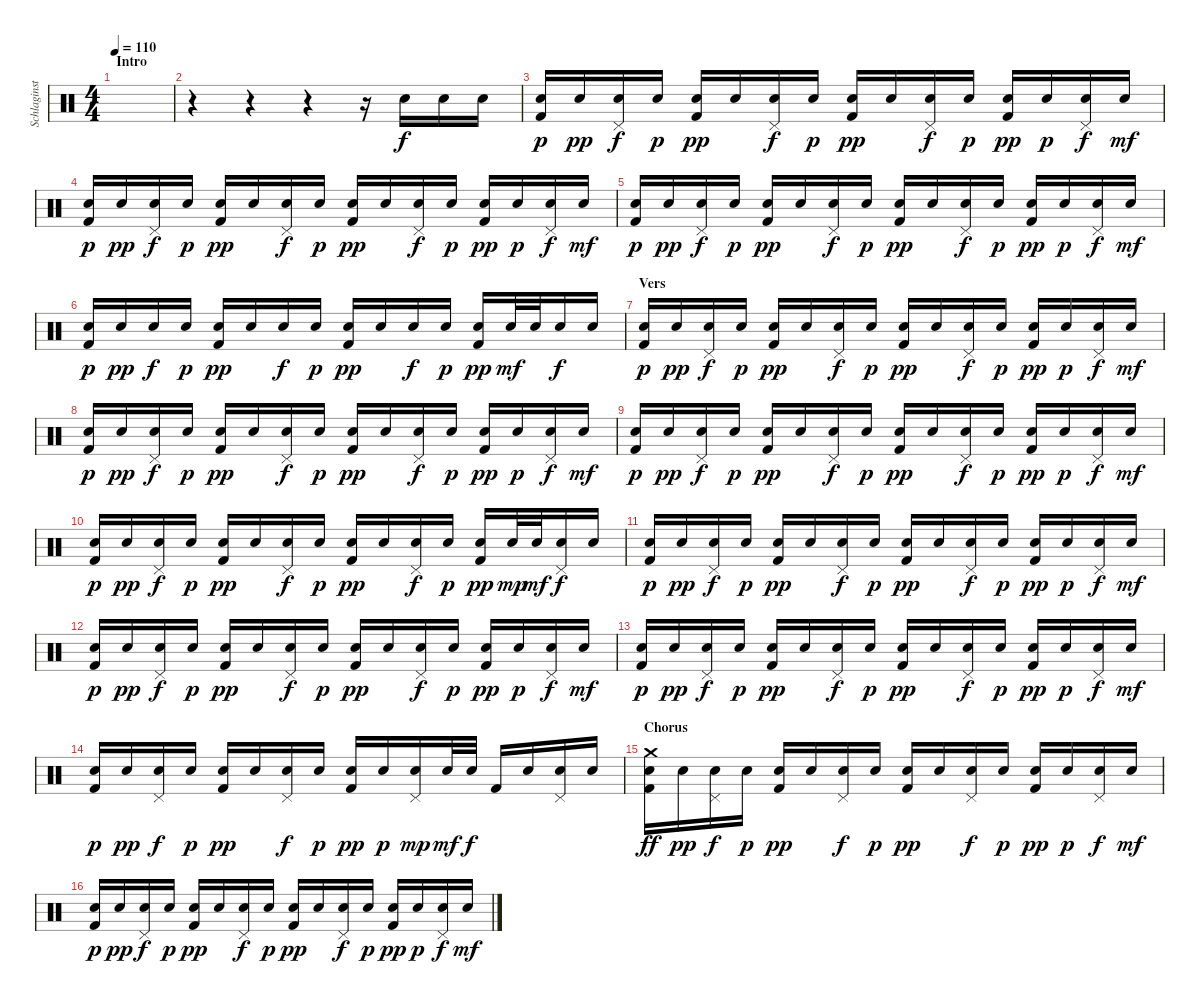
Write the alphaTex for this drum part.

\track ("Schlaginstrumente - Auswahl" "Schlaginst") {instrument percussion}
\staff {score}
\articulation defaults
\ts (4 4)
\section ("" "Intro")
\tempo 110
\clef neutral
\ks c
|
r.4 r.4 r.4 r.16 "Snare (hit) 2".16 "Snare (hit) 2".16 "Snare (hit) 2".16 |
("Snare (hit) 2" "Kick (hit) 2").16{dy p} "Snare (hit) 2".16{dy pp} ("Pedal Hi-Hat (hit)" "Snare (hit) 2").16{dy f} "Snare (hit) 2".16{dy p} ("Snare (hit) 2" "Kick (hit) 2").16{dy pp} "Snare (hit) 2".16 ("Pedal Hi-Hat (hit)" "Snare (hit) 2").16{dy f} "Snare (hit) 2".16{dy p} ("Snare (hit) 2" "Kick (hit) 2").16{dy pp} "Snare (hit) 2".16 ("Pedal Hi-Hat (hit)" "Snare (hit) 2").16{dy f} "Snare (hit) 2".16{dy p} ("Snare (hit) 2" "Kick (hit) 2").16{dy pp} "Snare (hit) 2".16{dy p} ("Pedal Hi-Hat (hit)" "Snare (hit) 2").16{dy f} "Snare (hit) 2".16{dy mf} |
("Snare (hit) 2" "Kick (hit) 2").16{dy p} "Snare (hit) 2".16{dy pp} ("Pedal Hi-Hat (hit)" "Snare (hit) 2").16{dy f} "Snare (hit) 2".16{dy p} ("Snare (hit) 2" "Kick (hit) 2").16{dy pp} "Snare (hit) 2".16 ("Pedal Hi-Hat (hit)" "Snare (hit) 2").16{dy f} "Snare (hit) 2".16{dy p} ("Snare (hit) 2" "Kick (hit) 2").16{dy pp} "Snare (hit) 2".16 ("Pedal Hi-Hat (hit)" "Snare (hit) 2").16{dy f} "Snare (hit) 2".16{dy p} ("Snare (hit) 2" "Kick (hit) 2").16{dy pp} "Snare (hit) 2".16{dy p} ("Pedal Hi-Hat (hit)" "Snare (hit) 2").16{dy f} "Snare (hit) 2".16{dy mf} |
("Snare (hit) 2" "Kick (hit) 2").16{dy p} "Snare (hit) 2".16{dy pp} ("Pedal Hi-Hat (hit)" "Snare (hit) 2").16{dy f} "Snare (hit) 2".16{dy p} ("Snare (hit) 2" "Kick (hit) 2").16{dy pp} "Snare (hit) 2".16 ("Pedal Hi-Hat (hit)" "Snare (hit) 2").16{dy f} "Snare (hit) 2".16{dy p} ("Snare (hit) 2" "Kick (hit) 2").16{dy pp} "Snare (hit) 2".16 ("Pedal Hi-Hat (hit)" "Snare (hit) 2").16{dy f} "Snare (hit) 2".16{dy p} ("Snare (hit) 2" "Kick (hit) 2").16{dy pp} "Snare (hit) 2".16{dy p} ("Pedal Hi-Hat (hit)" "Snare (hit) 2").16{dy f} "Snare (hit) 2".16{dy mf} |
("Snare (hit) 2" "Kick (hit) 2").16{dy p} "Snare (hit) 2".16{dy pp} "Snare (hit) 2".16{dy f} "Snare (hit) 2".16{dy p} ("Snare (hit) 2" "Kick (hit) 2").16{dy pp} "Snare (hit) 2".16 "Snare (hit) 2".16{dy f} "Snare (hit) 2".16{dy p} ("Snare (hit) 2" "Kick (hit) 2").16{dy pp} "Snare (hit) 2".16 "Snare (hit) 2".16{dy f} "Snare (hit) 2".16{dy p} ("Snare (hit) 2" "Kick (hit) 2").16{dy pp} "Snare (hit) 2".32{dy mf} "Snare (hit) 2".32 "Snare (hit) 2".16{dy f} "Snare (hit) 2".16 |
\section ("" "Vers")
("Snare (hit) 2" "Kick (hit) 2").16{dy p} "Snare (hit) 2".16{dy pp} ("Pedal Hi-Hat (hit)" "Snare (hit) 2").16{dy f} "Snare (hit) 2".16{dy p} ("Snare (hit) 2" "Kick (hit) 2").16{dy pp} "Snare (hit) 2".16 ("Pedal Hi-Hat (hit)" "Snare (hit) 2").16{dy f} "Snare (hit) 2".16{dy p} ("Snare (hit) 2" "Kick (hit) 2").16{dy pp} "Snare (hit) 2".16 ("Pedal Hi-Hat (hit)" "Snare (hit) 2").16{dy f} "Snare (hit) 2".16{dy p} ("Snare (hit) 2" "Kick (hit) 2").16{dy pp} "Snare (hit) 2".16{dy p} ("Pedal Hi-Hat (hit)" "Snare (hit) 2").16{dy f} "Snare (hit) 2".16{dy mf} |
("Snare (hit) 2" "Kick (hit) 2").16{dy p} "Snare (hit) 2".16{dy pp} ("Pedal Hi-Hat (hit)" "Snare (hit) 2").16{dy f} "Snare (hit) 2".16{dy p} ("Snare (hit) 2" "Kick (hit) 2").16{dy pp} "Snare (hit) 2".16 ("Pedal Hi-Hat (hit)" "Snare (hit) 2").16{dy f} "Snare (hit) 2".16{dy p} ("Snare (hit) 2" "Kick (hit) 2").16{dy pp} "Snare (hit) 2".16 ("Pedal Hi-Hat (hit)" "Snare (hit) 2").16{dy f} "Snare (hit) 2".16{dy p} ("Snare (hit) 2" "Kick (hit) 2").16{dy pp} "Snare (hit) 2".16{dy p} ("Pedal Hi-Hat (hit)" "Snare (hit) 2").16{dy f} "Snare (hit) 2".16{dy mf} |
("Snare (hit) 2" "Kick (hit) 2").16{dy p} "Snare (hit) 2".16{dy pp} ("Pedal Hi-Hat (hit)" "Snare (hit) 2").16{dy f} "Snare (hit) 2".16{dy p} ("Snare (hit) 2" "Kick (hit) 2").16{dy pp} "Snare (hit) 2".16 ("Pedal Hi-Hat (hit)" "Snare (hit) 2").16{dy f} "Snare (hit) 2".16{dy p} ("Snare (hit) 2" "Kick (hit) 2").16{dy pp} "Snare (hit) 2".16 ("Pedal Hi-Hat (hit)" "Snare (hit) 2").16{dy f} "Snare (hit) 2".16{dy p} ("Snare (hit) 2" "Kick (hit) 2").16{dy pp} "Snare (hit) 2".16{dy p} ("Pedal Hi-Hat (hit)" "Snare (hit) 2").16{dy f} "Snare (hit) 2".16{dy mf} |
("Snare (hit) 2" "Kick (hit) 2").16{dy p} "Snare (hit) 2".16{dy pp} ("Pedal Hi-Hat (hit)" "Snare (hit) 2").16{dy f} "Snare (hit) 2".16{dy p} ("Snare (hit) 2" "Kick (hit) 2").16{dy pp} "Snare (hit) 2".16 ("Pedal Hi-Hat (hit)" "Snare (hit) 2").16{dy f} "Snare (hit) 2".16{dy p} ("Snare (hit) 2" "Kick (hit) 2").16{dy pp} "Snare (hit) 2".16 ("Pedal Hi-Hat (hit)" "Snare (hit) 2").16{dy f} "Snare (hit) 2".16{dy p} ("Snare (hit) 2" "Kick (hit) 2").16{dy pp} "Snare (hit) 2".32{dy mp} "Snare (hit) 2".32{dy mf} ("Pedal Hi-Hat (hit)" "Snare (hit) 2").16{dy f} "Snare (hit) 2".16 |
("Snare (hit) 2" "Kick (hit) 2").16{dy p} "Snare (hit) 2".16{dy pp} ("Pedal Hi-Hat (hit)" "Snare (hit) 2").16{dy f} "Snare (hit) 2".16{dy p} ("Snare (hit) 2" "Kick (hit) 2").16{dy pp} "Snare (hit) 2".16 ("Pedal Hi-Hat (hit)" "Snare (hit) 2").16{dy f} "Snare (hit) 2".16{dy p} ("Snare (hit) 2" "Kick (hit) 2").16{dy pp} "Snare (hit) 2".16 ("Pedal Hi-Hat (hit)" "Snare (hit) 2").16{dy f} "Snare (hit) 2".16{dy p} ("Snare (hit) 2" "Kick (hit) 2").16{dy pp} "Snare (hit) 2".16{dy p} ("Pedal Hi-Hat (hit)" "Snare (hit) 2").16{dy f} "Snare (hit) 2".16{dy mf} |
("Snare (hit) 2" "Kick (hit) 2").16{dy p} "Snare (hit) 2".16{dy pp} ("Pedal Hi-Hat (hit)" "Snare (hit) 2").16{dy f} "Snare (hit) 2".16{dy p} ("Snare (hit) 2" "Kick (hit) 2").16{dy pp} "Snare (hit) 2".16 ("Pedal Hi-Hat (hit)" "Snare (hit) 2").16{dy f} "Snare (hit) 2".16{dy p} ("Snare (hit) 2" "Kick (hit) 2").16{dy pp} "Snare (hit) 2".16 ("Pedal Hi-Hat (hit)" "Snare (hit) 2").16{dy f} "Snare (hit) 2".16{dy p} ("Snare (hit) 2" "Kick (hit) 2").16{dy pp} "Snare (hit) 2".16{dy p} ("Pedal Hi-Hat (hit)" "Snare (hit) 2").16{dy f} "Snare (hit) 2".16{dy mf} |
("Snare (hit) 2" "Kick (hit) 2").16{dy p} "Snare (hit) 2".16{dy pp} ("Pedal Hi-Hat (hit)" "Snare (hit) 2").16{dy f} "Snare (hit) 2".16{dy p} ("Snare (hit) 2" "Kick (hit) 2").16{dy pp} "Snare (hit) 2".16 ("Pedal Hi-Hat (hit)" "Snare (hit) 2").16{dy f} "Snare (hit) 2".16{dy p} ("Snare (hit) 2" "Kick (hit) 2").16{dy pp} "Snare (hit) 2".16 ("Pedal Hi-Hat (hit)" "Snare (hit) 2").16{dy f} "Snare (hit) 2".16{dy p} ("Snare (hit) 2" "Kick (hit) 2").16{dy pp} "Snare (hit) 2".16{dy p} ("Pedal Hi-Hat (hit)" "Snare (hit) 2").16{dy f} "Snare (hit) 2".16{dy mf} |
("Snare (hit) 2" "Kick (hit) 2").16{dy p} "Snare (hit) 2".16{dy pp} ("Pedal Hi-Hat (hit)" "Snare (hit) 2").16{dy f} "Snare (hit) 2".16{dy p} ("Snare (hit) 2" "Kick (hit) 2").16{dy pp} "Snare (hit) 2".16 ("Pedal Hi-Hat (hit)" "Snare (hit) 2").16{dy f} "Snare (hit) 2".16{dy p} ("Snare (hit) 2" "Kick (hit) 2").16{dy pp} "Snare (hit) 2".16{dy p} ("Pedal Hi-Hat (hit)" "Snare (hit) 2").16{dy mp} "Snare (hit) 2".32{dy mf} "Snare (hit) 2".32{dy f} "Kick (hit) 2".16 "Snare (hit) 2".16 ("Pedal Hi-Hat (hit)" "Snare (hit) 2").16 "Snare (hit) 2".16 |
\section ("" "Chorus")
("Crash medium (hit)" "Snare (hit) 2" "Kick (hit) 2").16{dy ff} "Snare (hit) 2".16{dy pp} ("Pedal Hi-Hat (hit)" "Snare (hit) 2").16{dy f} "Snare (hit) 2".16{dy p} ("Snare (hit) 2" "Kick (hit) 2").16{dy pp} "Snare (hit) 2".16 ("Pedal Hi-Hat (hit)" "Snare (hit) 2").16{dy f} "Snare (hit) 2".16{dy p} ("Snare (hit) 2" "Kick (hit) 2").16{dy pp} "Snare (hit) 2".16 ("Pedal Hi-Hat (hit)" "Snare (hit) 2").16{dy f} "Snare (hit) 2".16{dy p} ("Snare (hit) 2" "Kick (hit) 2").16{dy pp} "Snare (hit) 2".16{dy p} ("Pedal Hi-Hat (hit)" "Snare (hit) 2").16{dy f} "Snare (hit) 2".16{dy mf} |
("Snare (hit) 2" "Kick (hit) 2").16{dy p} "Snare (hit) 2".16{dy pp} ("Pedal Hi-Hat (hit)" "Snare (hit) 2").16{dy f} "Snare (hit) 2".16{dy p} ("Snare (hit) 2" "Kick (hit) 2").16{dy pp} "Snare (hit) 2".16 ("Pedal Hi-Hat (hit)" "Snare (hit) 2").16{dy f} "Snare (hit) 2".16{dy p} ("Snare (hit) 2" "Kick (hit) 2").16{dy pp} "Snare (hit) 2".16 ("Pedal Hi-Hat (hit)" "Snare (hit) 2").16{dy f} "Snare (hit) 2".16{dy p} ("Snare (hit) 2" "Kick (hit) 2").16{dy pp} "Snare (hit) 2".16{dy p} ("Pedal Hi-Hat (hit)" "Snare (hit) 2").16{dy f} "Snare (hit) 2".16{dy mf}
